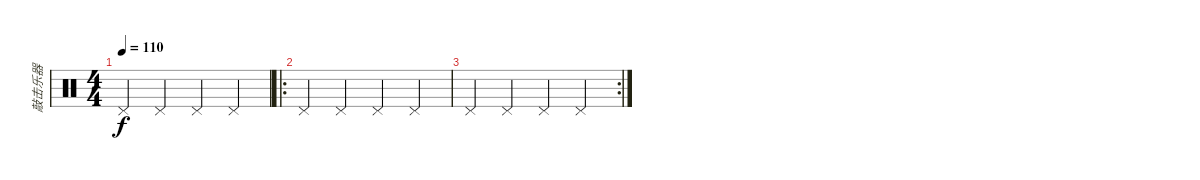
\track ("敲击乐器" "敲击乐器") {instrument percussion}
\staff {score}
\articulation defaults
\ts (4 4)
\tempo 110
\clef neutral
\ks c "Pedal Hi-Hat (hit)".4{dy f} "Pedal Hi-Hat (hit)".4 "Pedal Hi-Hat (hit)".4 "Pedal Hi-Hat (hit)".4
|
\ro "Pedal Hi-Hat (hit)".4 "Pedal Hi-Hat (hit)".4 "Pedal Hi-Hat (hit)".4 "Pedal Hi-Hat (hit)".4
|
\rc 2 "Pedal Hi-Hat (hit)".4 "Pedal Hi-Hat (hit)".4 "Pedal Hi-Hat (hit)".4 "Pedal Hi-Hat (hit)".4
